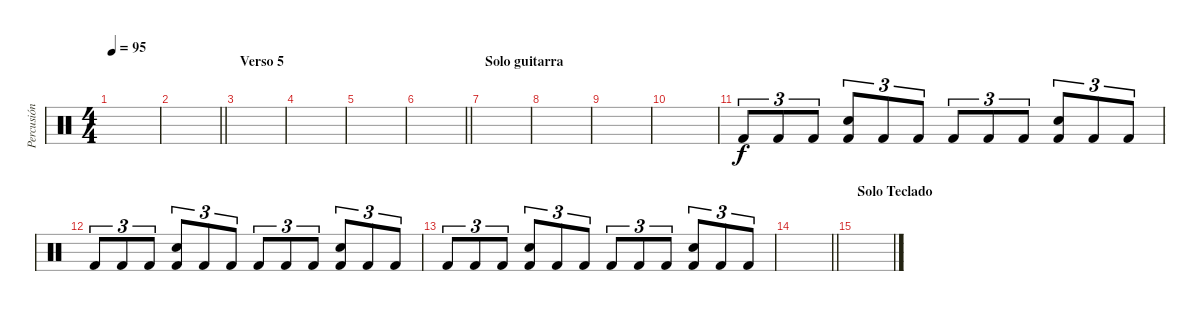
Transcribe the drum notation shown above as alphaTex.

\track ("Percusión" "Percusión") {instrument percussion}
\staff {score}
\articulation defaults
\ts (4 4)
\tempo 95
\clef neutral
\ks c
|
\barLineRight lightlight
|
\section ("" "Verso 5")
|
|
|
\barLineRight lightlight
|
\section ("" "Solo guitarra")
|
|
|
|
"Kick (hit) 2".8{tu (3 2)} "Kick (hit) 2".8{tu (3 2)} "Kick (hit) 2".8{tu (3 2)} ("Electric Snare (hit)" "Kick (hit) 2").8{tu (3 2)} "Kick (hit) 2".8{tu (3 2)} "Kick (hit) 2".8{tu (3 2)} "Kick (hit) 2".8{tu (3 2)} "Kick (hit) 2".8{tu (3 2)} "Kick (hit) 2".8{tu (3 2)} ("Electric Snare (hit)" "Kick (hit) 2").8{tu (3 2)} "Kick (hit) 2".8{tu (3 2)} "Kick (hit) 2".8{tu (3 2)} |
"Kick (hit) 2".8{tu (3 2)} "Kick (hit) 2".8{tu (3 2)} "Kick (hit) 2".8{tu (3 2)} ("Electric Snare (hit)" "Kick (hit) 2").8{tu (3 2)} "Kick (hit) 2".8{tu (3 2)} "Kick (hit) 2".8{tu (3 2)} "Kick (hit) 2".8{tu (3 2)} "Kick (hit) 2".8{tu (3 2)} "Kick (hit) 2".8{tu (3 2)} ("Electric Snare (hit)" "Kick (hit) 2").8{tu (3 2)} "Kick (hit) 2".8{tu (3 2)} "Kick (hit) 2".8{tu (3 2)} |
"Kick (hit) 2".8{tu (3 2)} "Kick (hit) 2".8{tu (3 2)} "Kick (hit) 2".8{tu (3 2)} ("Electric Snare (hit)" "Kick (hit) 2").8{tu (3 2)} "Kick (hit) 2".8{tu (3 2)} "Kick (hit) 2".8{tu (3 2)} "Kick (hit) 2".8{tu (3 2)} "Kick (hit) 2".8{tu (3 2)} "Kick (hit) 2".8{tu (3 2)} ("Electric Snare (hit)" "Kick (hit) 2").8{tu (3 2)} "Kick (hit) 2".8{tu (3 2)} "Kick (hit) 2".8{tu (3 2)} |
\barLineRight lightlight
|
\section ("" "Solo Teclado")
